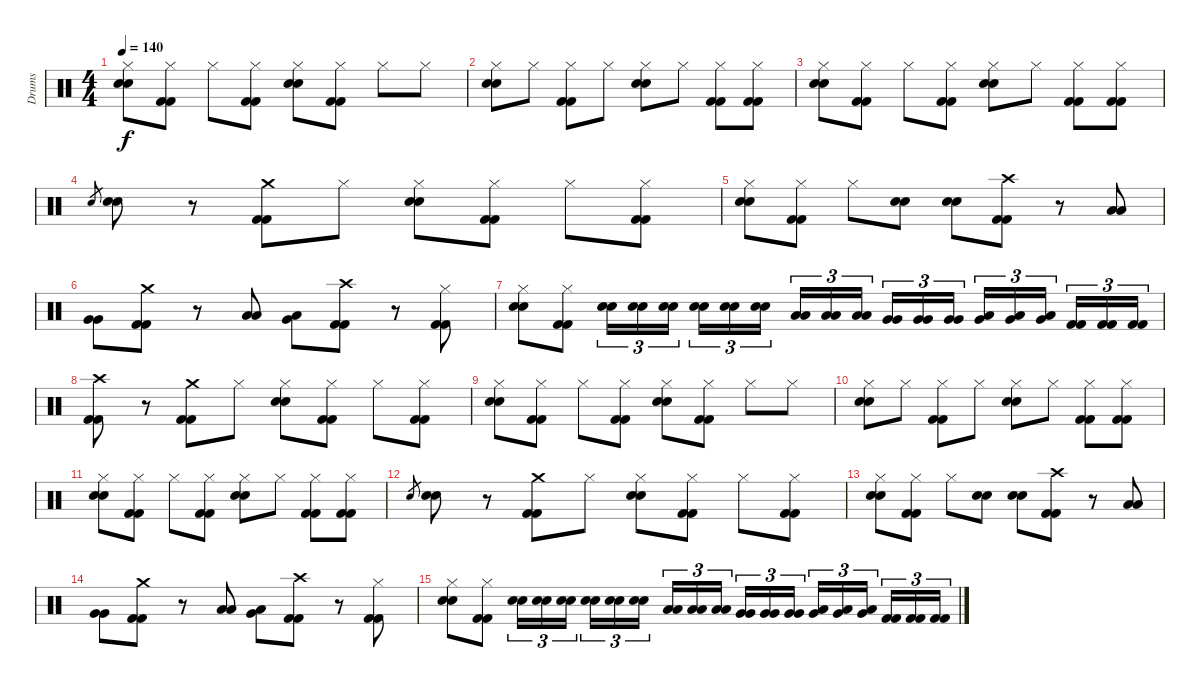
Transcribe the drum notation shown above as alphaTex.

\track ("Drums" "Drums") {instrument percussion}
\staff {score}
\articulation defaults
\ts (4 4)
\tempo 140
\clef neutral
\ks c
("Hi-Hat (closed)" "Snare (hit) 2" "Snare (hit) 2").8{dy f} ("Hi-Hat (closed)" "Kick (hit) 2" "Kick (hit) 2").8 "Hi-Hat (closed)".8 ("Hi-Hat (closed)" "Kick (hit) 2" "Kick (hit) 2").8 ("Hi-Hat (closed)" "Snare (hit) 2" "Snare (hit) 2").8 ("Hi-Hat (closed)" "Kick (hit) 2" "Kick (hit) 2").8 "Hi-Hat (closed)".8 "Hi-Hat (closed)".8 |
("Hi-Hat (closed)" "Snare (hit) 2" "Snare (hit) 2").8 "Hi-Hat (closed)".8 ("Hi-Hat (closed)" "Kick (hit) 2" "Kick (hit) 2").8 "Hi-Hat (closed)".8 ("Hi-Hat (closed)" "Snare (hit) 2" "Snare (hit) 2").8 "Hi-Hat (closed)".8 ("Hi-Hat (closed)" "Kick (hit) 2" "Kick (hit) 2").8 ("Hi-Hat (closed)" "Kick (hit) 2" "Kick (hit) 2").8 |
("Hi-Hat (closed)" "Snare (hit) 2" "Snare (hit) 2").8 ("Hi-Hat (closed)" "Kick (hit) 2" "Kick (hit) 2").8 "Hi-Hat (closed)".8 ("Hi-Hat (closed)" "Kick (hit) 2" "Kick (hit) 2").8 ("Hi-Hat (closed)" "Snare (hit) 2" "Snare (hit) 2").8 "Hi-Hat (closed)".8 ("Hi-Hat (closed)" "Kick (hit) 2" "Kick (hit) 2").8 ("Hi-Hat (closed)" "Kick (hit) 2" "Kick (hit) 2").8 |
"Snare (hit) 2".8{gr} ("Snare (hit) 2" "Snare (hit) 2").8 r.8 ("Crash medium (hit)" "Kick (hit) 2" "Kick (hit) 2").8 "Hi-Hat (closed)".8 ("Hi-Hat (closed)" "Snare (hit) 2" "Snare (hit) 2").8 ("Hi-Hat (closed)" "Kick (hit) 2" "Kick (hit) 2").8 "Hi-Hat (closed)".8 ("Hi-Hat (closed)" "Kick (hit) 2" "Kick (hit) 2").8 |
("Hi-Hat (closed)" "Snare (hit) 2" "Snare (hit) 2").8 ("Hi-Hat (closed)" "Kick (hit) 2" "Kick (hit) 2").8 "Hi-Hat (closed)".8 ("Snare (hit) 2" "Snare (hit) 2").8 ("Snare (hit) 2" "Snare (hit) 2").8 ("Crash high (hit)" "Kick (hit) 2" "Kick (hit) 2").8 r.8 ("Low Tom (hit)" "Low Tom (hit)").8 |
("Very Low Tom (hit)" "Very Low Tom (hit)").8 ("Crash medium (hit)" "Kick (hit) 2" "Kick (hit) 2").8 r.8 ("Low Tom (hit)" "Low Tom (hit)").8 ("Very Low Tom (hit)" "Low Tom (hit)").8 ("Crash high (hit)" "Kick (hit) 2" "Kick (hit) 2").8 r.8 ("Hi-Hat (closed)" "Kick (hit) 2" "Kick (hit) 2").8 |
("Hi-Hat (closed)" "Snare (hit) 2" "Snare (hit) 2").8 ("Hi-Hat (closed)" "Kick (hit) 2" "Kick (hit) 2").8 ("Snare (hit) 2" "Snare (hit) 2").16{tu (3 2)} ("Snare (hit) 2" "Snare (hit) 2").16{tu (3 2)} ("Snare (hit) 2" "Snare (hit) 2").16{tu (3 2)} ("Snare (hit) 2" "Snare (hit) 2").16{tu (3 2)} ("Snare (hit) 2" "Snare (hit) 2").16{tu (3 2)} ("Snare (hit) 2" "Snare (hit) 2").16{tu (3 2)} ("Low Tom (hit)" "Low Tom (hit)").16{tu (3 2)} ("Low Tom (hit)" "Low Tom (hit)").16{tu (3 2)} ("Low Tom (hit)" "Low Tom (hit)").16{tu (3 2)} ("Very Low Tom (hit)" "Very Low Tom (hit)").16{tu (3 2)} ("Very Low Tom (hit)" "Very Low Tom (hit)").16{tu (3 2)} ("Very Low Tom (hit)" "Very Low Tom (hit)").16{tu (3 2)} ("Very Low Tom (hit)" "Low Floor Tom (hit)").16{tu (3 2)} ("Very Low Tom (hit)" "Low Floor Tom (hit)").16{tu (3 2)} ("Very Low Tom (hit)" "Low Floor Tom (hit)").16{tu (3 2)} ("Kick (hit) 2" "Kick (hit) 2").16{tu (3 2)} ("Kick (hit) 2" "Kick (hit) 2").16{tu (3 2)} ("Kick (hit) 2" "Kick (hit) 2").16{tu (3 2)} |
("Crash high (hit)" "Kick (hit) 2" "Kick (hit) 2").8 r.8 ("Crash medium (hit)" "Kick (hit) 2" "Kick (hit) 2").8 "Hi-Hat (closed)".8 ("Hi-Hat (closed)" "Snare (hit) 2" "Snare (hit) 2").8 ("Hi-Hat (closed)" "Kick (hit) 2" "Kick (hit) 2").8 "Hi-Hat (closed)".8 ("Hi-Hat (closed)" "Kick (hit) 2" "Kick (hit) 2").8 |
("Hi-Hat (closed)" "Snare (hit) 2" "Snare (hit) 2").8 ("Hi-Hat (closed)" "Kick (hit) 2" "Kick (hit) 2").8 "Hi-Hat (closed)".8 ("Hi-Hat (closed)" "Kick (hit) 2" "Kick (hit) 2").8 ("Hi-Hat (closed)" "Snare (hit) 2" "Snare (hit) 2").8 ("Hi-Hat (closed)" "Kick (hit) 2" "Kick (hit) 2").8 "Hi-Hat (closed)".8 "Hi-Hat (closed)".8 |
("Hi-Hat (closed)" "Snare (hit) 2" "Snare (hit) 2").8 "Hi-Hat (closed)".8 ("Hi-Hat (closed)" "Kick (hit) 2" "Kick (hit) 2").8 "Hi-Hat (closed)".8 ("Hi-Hat (closed)" "Snare (hit) 2" "Snare (hit) 2").8 "Hi-Hat (closed)".8 ("Hi-Hat (closed)" "Kick (hit) 2" "Kick (hit) 2").8 ("Hi-Hat (closed)" "Kick (hit) 2" "Kick (hit) 2").8 |
("Hi-Hat (closed)" "Snare (hit) 2" "Snare (hit) 2").8 ("Hi-Hat (closed)" "Kick (hit) 2" "Kick (hit) 2").8 "Hi-Hat (closed)".8 ("Hi-Hat (closed)" "Kick (hit) 2" "Kick (hit) 2").8 ("Hi-Hat (closed)" "Snare (hit) 2" "Snare (hit) 2").8 "Hi-Hat (closed)".8 ("Hi-Hat (closed)" "Kick (hit) 2" "Kick (hit) 2").8 ("Hi-Hat (closed)" "Kick (hit) 2" "Kick (hit) 2").8 |
"Snare (hit) 2".8{gr} ("Snare (hit) 2" "Snare (hit) 2").8 r.8 ("Crash medium (hit)" "Kick (hit) 2" "Kick (hit) 2").8 "Hi-Hat (closed)".8 ("Hi-Hat (closed)" "Snare (hit) 2" "Snare (hit) 2").8 ("Hi-Hat (closed)" "Kick (hit) 2" "Kick (hit) 2").8 "Hi-Hat (closed)".8 ("Hi-Hat (closed)" "Kick (hit) 2" "Kick (hit) 2").8 |
("Hi-Hat (closed)" "Snare (hit) 2" "Snare (hit) 2").8 ("Hi-Hat (closed)" "Kick (hit) 2" "Kick (hit) 2").8 "Hi-Hat (closed)".8 ("Snare (hit) 2" "Snare (hit) 2").8 ("Snare (hit) 2" "Snare (hit) 2").8 ("Crash high (hit)" "Kick (hit) 2" "Kick (hit) 2").8 r.8 ("Low Tom (hit)" "Low Tom (hit)").8 |
("Very Low Tom (hit)" "Very Low Tom (hit)").8 ("Crash medium (hit)" "Kick (hit) 2" "Kick (hit) 2").8 r.8 ("Low Tom (hit)" "Low Tom (hit)").8 ("Very Low Tom (hit)" "Low Tom (hit)").8 ("Crash high (hit)" "Kick (hit) 2" "Kick (hit) 2").8 r.8 ("Hi-Hat (closed)" "Kick (hit) 2" "Kick (hit) 2").8 |
("Hi-Hat (closed)" "Snare (hit) 2" "Snare (hit) 2").8 ("Hi-Hat (closed)" "Kick (hit) 2" "Kick (hit) 2").8 ("Snare (hit) 2" "Snare (hit) 2").16{tu (3 2)} ("Snare (hit) 2" "Snare (hit) 2").16{tu (3 2)} ("Snare (hit) 2" "Snare (hit) 2").16{tu (3 2)} ("Snare (hit) 2" "Snare (hit) 2").16{tu (3 2)} ("Snare (hit) 2" "Snare (hit) 2").16{tu (3 2)} ("Snare (hit) 2" "Snare (hit) 2").16{tu (3 2)} ("Low Tom (hit)" "Low Tom (hit)").16{tu (3 2)} ("Low Tom (hit)" "Low Tom (hit)").16{tu (3 2)} ("Low Tom (hit)" "Low Tom (hit)").16{tu (3 2)} ("Very Low Tom (hit)" "Very Low Tom (hit)").16{tu (3 2)} ("Very Low Tom (hit)" "Very Low Tom (hit)").16{tu (3 2)} ("Very Low Tom (hit)" "Very Low Tom (hit)").16{tu (3 2)} ("Very Low Tom (hit)" "Low Floor Tom (hit)").16{tu (3 2)} ("Very Low Tom (hit)" "Low Floor Tom (hit)").16{tu (3 2)} ("Very Low Tom (hit)" "Low Floor Tom (hit)").16{tu (3 2)} ("Kick (hit) 2" "Kick (hit) 2").16{tu (3 2)} ("Kick (hit) 2" "Kick (hit) 2").16{tu (3 2)} ("Kick (hit) 2" "Kick (hit) 2").16{tu (3 2)}
